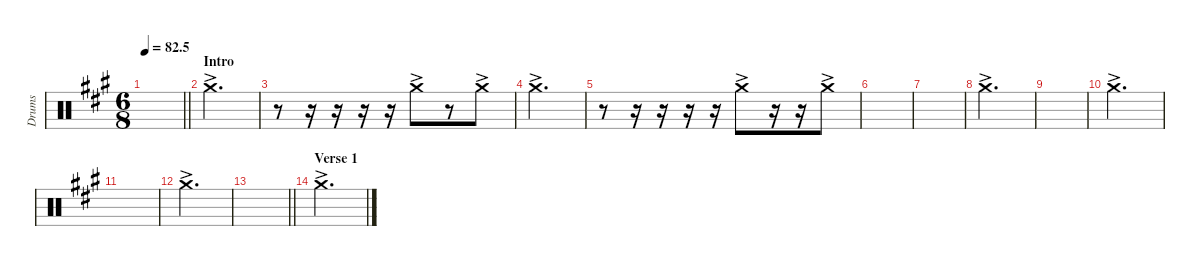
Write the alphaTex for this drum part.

\defaultSystemsLayout 4
\hideDynamics
\bracketExtendMode nobrackets
\otherSystemsTrackNameOrientation horizontal
\track ("Right crash" "Drums") {instrument percussion}
\staff {score}
\articulation defaults
\ts (6 8)
\tempo
82.5
\accidentals auto
\clef neutral
\ottava regular
\simile none
\scale
0.474178
\barLineRight lightlight
\ks a
|
\section ("" "Intro")
\scale
0.262911 "Crash medium (hit)"{ac acc forcenatural}.2{d} |
\scale
0.262911 r.8 r.16 r.16 r.16 r.16 "Crash medium (hit)"{ac acc forcenatural}.8 r.8 "Crash medium (hit)"{ac acc forcenatural}.8 |
\scale
0.333333 "Crash medium (hit)"{ac acc forcenatural}.2{d} |
\scale
0.333333 r.8 r.16 r.16 r.16 r.16 "Crash medium (hit)"{ac acc forcenatural}.8 r.16 r.16 "Crash medium (hit)"{ac acc forcenatural}.8 |
\scale
0.333333 |
\scale
0.333333 |
\scale
0.333333 "Crash medium (hit)"{ac acc forcenatural}.2{d} |
\scale
0.333333 |
\scale
0.333333 "Crash medium (hit)"{ac acc forcenatural}.2{d} |
\scale
0.333333 |
\scale
0.333333 "Crash medium (hit)"{ac acc forcenatural}.2{d} |
\scale
0.333333
\barLineRight lightlight
|
\section ("" "Verse 1")
\scale
0.333333 "Crash medium (hit)"{ac acc forcenatural}.2{d} |
\scale
0.333333 |
\scale
0.333333
